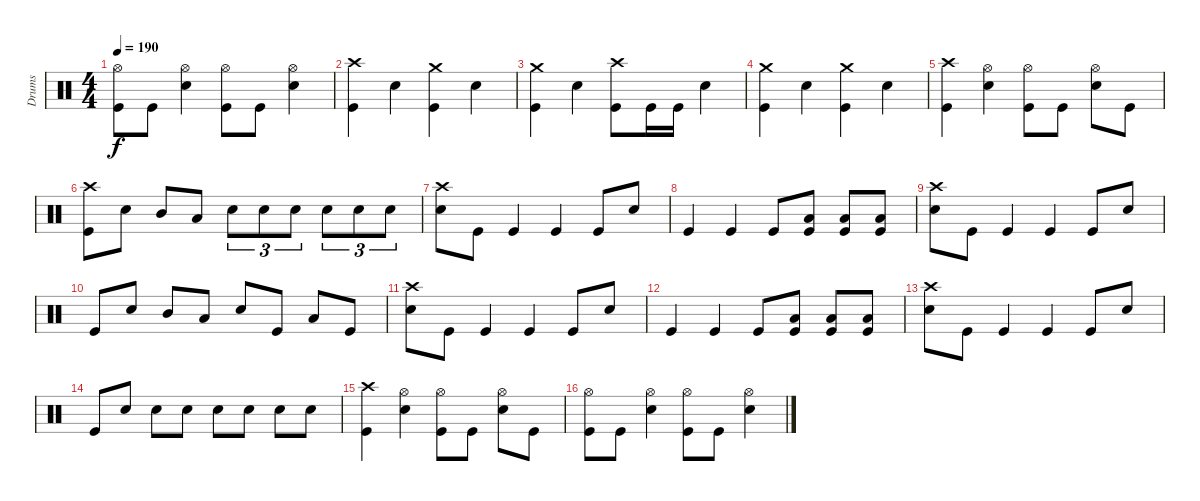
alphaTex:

\track ("Drums" "Drums") {instrument percussion}
\staff {score}
\articulation defaults
\ts (4 4)
\tempo 190
\clef neutral
\ks c
("Hi-Hat (open)" "Kick (hit)").8{dy f} "Kick (hit)".8 ("Hi-Hat (open)" "Electric Snare (hit)").4 ("Hi-Hat (open)" "Kick (hit)").8 "Kick (hit)".8 ("Hi-Hat (open)" "Electric Snare (hit)").4 |
("Crash high (hit)" "Kick (hit)").4 "Electric Snare (hit)".4 ("Crash medium (hit)" "Kick (hit)").4 "Electric Snare (hit)".4 |
("Crash medium (hit)" "Kick (hit)").4 "Electric Snare (hit)".4 ("Crash high (hit)" "Kick (hit)").8 "Kick (hit)".16 "Kick (hit)".16 "Electric Snare (hit)".4 |
("Crash medium (hit)" "Kick (hit)").4 "Electric Snare (hit)".4 ("Crash medium (hit)" "Kick (hit)").4 "Electric Snare (hit)".4 |
("Crash high (hit)" "Kick (hit)").4 ("Hi-Hat (open)" "Electric Snare (hit)").4 ("Hi-Hat (open)" "Kick (hit)").8 "Kick (hit)".8 ("Hi-Hat (open)" "Electric Snare (hit)").8 "Kick (hit)".8 |
("Crash high (hit)" "Kick (hit)").8 "Electric Snare (hit)".8 "Mid Tom (hit)".8 "Low Tom (hit)".8 "Electric Snare (hit)".8{tu (3 2)} "Electric Snare (hit)".8{tu (3 2)} "Electric Snare (hit)".8{tu (3 2)} "Electric Snare (hit)".8{tu (3 2)} "Electric Snare (hit)".8{tu (3 2)} "Electric Snare (hit)".8{tu (3 2)} |
("Crash high (hit)" "Electric Snare (hit)").8 "Kick (hit)".8 "Kick (hit)".4 "Kick (hit)".4 "Kick (hit)".8 "Electric Snare (hit)".8 |
"Kick (hit)".4 "Kick (hit)".4 "Kick (hit)".8 ("Low Tom (hit)" "Kick (hit)").8 ("Low Tom (hit)" "Kick (hit)").8 ("Low Tom (hit)" "Kick (hit)").8 |
("Crash high (hit)" "Electric Snare (hit)").8 "Kick (hit)".8 "Kick (hit)".4 "Kick (hit)".4 "Kick (hit)".8 "Electric Snare (hit)".8 |
"Kick (hit)".8 "Electric Snare (hit)".8 "Mid Tom (hit)".8 "Low Tom (hit)".8 "Electric Snare (hit)".8 "Kick (hit)".8 "Low Tom (hit)".8 "Kick (hit)".8 |
("Crash high (hit)" "Electric Snare (hit)").8 "Kick (hit)".8 "Kick (hit)".4 "Kick (hit)".4 "Kick (hit)".8 "Electric Snare (hit)".8 |
"Kick (hit)".4 "Kick (hit)".4 "Kick (hit)".8 ("Low Tom (hit)" "Kick (hit)").8 ("Low Tom (hit)" "Kick (hit)").8 ("Low Tom (hit)" "Kick (hit)").8 |
("Crash high (hit)" "Electric Snare (hit)").8 "Kick (hit)".8 "Kick (hit)".4 "Kick (hit)".4 "Kick (hit)".8 "Electric Snare (hit)".8 |
"Kick (hit)".8 "Electric Snare (hit)".8 "Electric Snare (hit)".8 "Electric Snare (hit)".8 "Electric Snare (hit)".8 "Electric Snare (hit)".8 "Electric Snare (hit)".8 "Electric Snare (hit)".8 |
("Crash high (hit)" "Kick (hit)").4 ("Hi-Hat (open)" "Electric Snare (hit)").4 ("Hi-Hat (open)" "Kick (hit)").8 "Kick (hit)".8 ("Hi-Hat (open)" "Electric Snare (hit)").8 "Kick (hit)".8 |
("Hi-Hat (open)" "Kick (hit)").8 "Kick (hit)".8 ("Hi-Hat (open)" "Electric Snare (hit)").4 ("Hi-Hat (open)" "Kick (hit)").8 "Kick (hit)".8 ("Hi-Hat (open)" "Electric Snare (hit)").4
